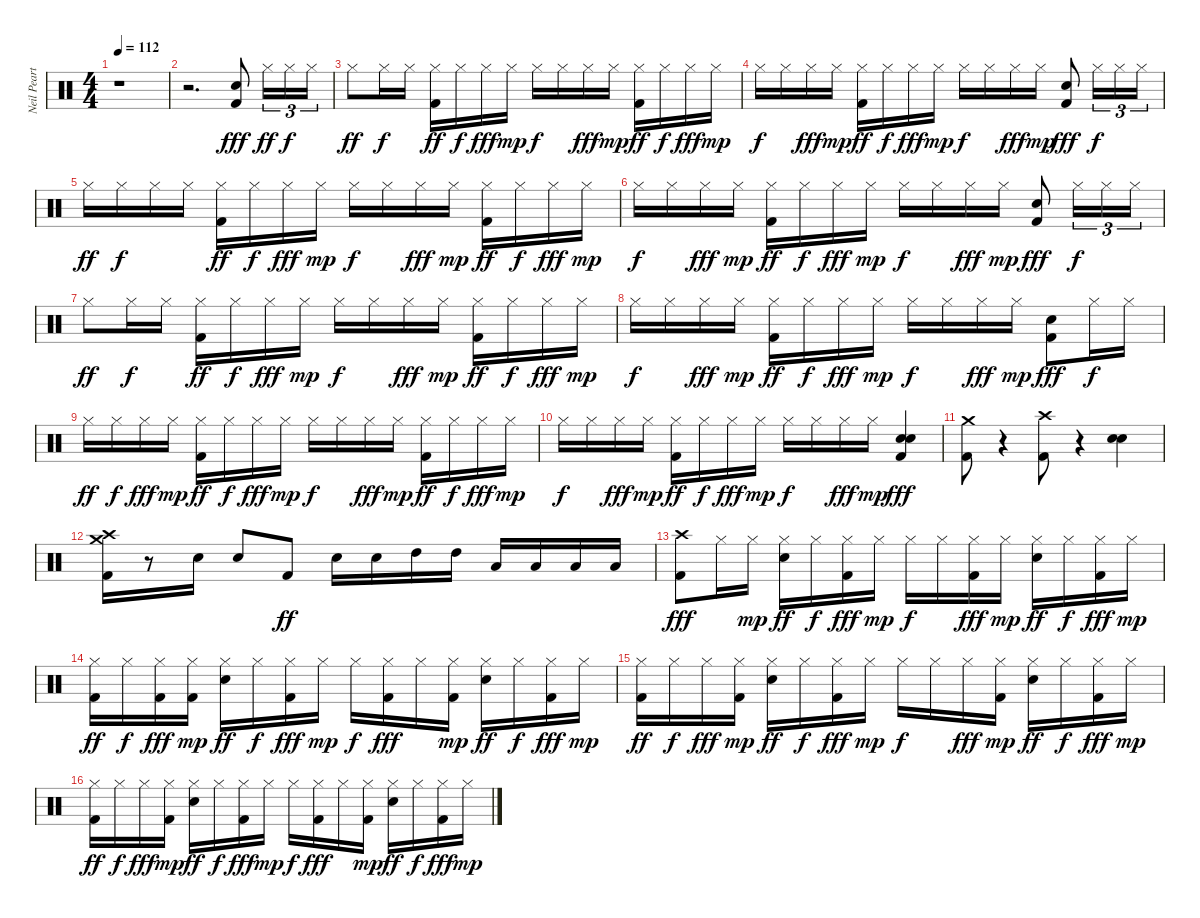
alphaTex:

\track ("Neil Peart" "Neil Peart") {instrument percussion}
\staff {score}
\articulation defaults
\ts (4 4)
\tempo 112
\clef neutral
\ks c
r.1{dy f} |
r.2{d} ("Kick (hit) 2" "Snare (hit) 2").8{dy fff} "Hi-Hat (closed)".16{tu (3 2) dy ff} "Hi-Hat (closed)".16{tu (3 2) dy f} "Hi-Hat (closed)".16{tu (3 2)} |
"Hi-Hat (closed)".8{dy ff} "Hi-Hat (closed)".16{dy f} "Hi-Hat (closed)".16 ("Hi-Hat (closed)" "Kick (hit) 2").16{dy ff} "Hi-Hat (closed)".16{dy f} "Hi-Hat (closed)".16{dy fff} "Hi-Hat (closed)".16{dy mp} "Hi-Hat (closed)".16{dy f} "Hi-Hat (closed)".16 "Hi-Hat (closed)".16{dy fff} "Hi-Hat (closed)".16{dy mp} ("Hi-Hat (closed)" "Kick (hit) 2").16{dy ff} "Hi-Hat (closed)".16{dy f} "Hi-Hat (closed)".16{dy fff} "Hi-Hat (closed)".16{dy mp} |
"Hi-Hat (closed)".16{dy f} "Hi-Hat (closed)".16 "Hi-Hat (closed)".16{dy fff} "Hi-Hat (closed)".16{dy mp} ("Kick (hit) 2" "Hi-Hat (closed)").16{dy ff} "Hi-Hat (closed)".16{dy f} "Hi-Hat (closed)".16{dy fff} "Hi-Hat (closed)".16{dy mp} "Hi-Hat (closed)".16{dy f} "Hi-Hat (closed)".16 "Hi-Hat (closed)".16{dy fff} "Hi-Hat (closed)".16{dy mp} ("Kick (hit) 2" "Snare (hit) 2").8{dy fff} "Hi-Hat (closed)".16{tu (3 2) dy f} "Hi-Hat (closed)".16{tu (3 2)} "Hi-Hat (closed)".16{tu (3 2)} |
"Hi-Hat (closed)".16{dy ff} "Hi-Hat (closed)".16{dy f} "Hi-Hat (closed)".16 "Hi-Hat (closed)".16 ("Kick (hit) 2" "Hi-Hat (closed)").16{dy ff} "Hi-Hat (closed)".16{dy f} "Hi-Hat (closed)".16{dy fff} "Hi-Hat (closed)".16{dy mp} "Hi-Hat (closed)".16{dy f} "Hi-Hat (closed)".16 "Hi-Hat (closed)".16{dy fff} "Hi-Hat (closed)".16{dy mp} ("Kick (hit) 2" "Hi-Hat (closed)").16{dy ff} "Hi-Hat (closed)".16{dy f} "Hi-Hat (closed)".16{dy fff} "Hi-Hat (closed)".16{dy mp} |
"Hi-Hat (closed)".16{dy f} "Hi-Hat (closed)".16 "Hi-Hat (closed)".16{dy fff} "Hi-Hat (closed)".16{dy mp} ("Kick (hit) 2" "Hi-Hat (closed)").16{dy ff} "Hi-Hat (closed)".16{dy f} "Hi-Hat (closed)".16{dy fff} "Hi-Hat (closed)".16{dy mp} "Hi-Hat (closed)".16{dy f} "Hi-Hat (closed)".16 "Hi-Hat (closed)".16{dy fff} "Hi-Hat (closed)".16{dy mp} ("Kick (hit) 2" "Snare (hit) 2").8{dy fff} "Hi-Hat (closed)".16{tu (3 2) dy f} "Hi-Hat (closed)".16{tu (3 2)} "Hi-Hat (closed)".16{tu (3 2)} |
"Hi-Hat (closed)".8{dy ff} "Hi-Hat (closed)".16{dy f} "Hi-Hat (closed)".16 ("Kick (hit) 2" "Hi-Hat (closed)").16{dy ff} "Hi-Hat (closed)".16{dy f} "Hi-Hat (closed)".16{dy fff} "Hi-Hat (closed)".16{dy mp} "Hi-Hat (closed)".16{dy f} "Hi-Hat (closed)".16 "Hi-Hat (closed)".16{dy fff} "Hi-Hat (closed)".16{dy mp} ("Kick (hit) 2" "Hi-Hat (closed)").16{dy ff} "Hi-Hat (closed)".16{dy f} "Hi-Hat (closed)".16{dy fff} "Hi-Hat (closed)".16{dy mp} |
"Hi-Hat (closed)".16{dy f} "Hi-Hat (closed)".16 "Hi-Hat (closed)".16{dy fff} "Hi-Hat (closed)".16{dy mp} ("Kick (hit) 2" "Hi-Hat (closed)").16{dy ff} "Hi-Hat (closed)".16{dy f} "Hi-Hat (closed)".16{dy fff} "Hi-Hat (closed)".16{dy mp} "Hi-Hat (closed)".16{dy f} "Hi-Hat (closed)".16 "Hi-Hat (closed)".16{dy fff} "Hi-Hat (closed)".16{dy mp} ("Kick (hit) 2" "Snare (hit) 2").8{dy fff} "Hi-Hat (closed)".16{dy f} "Hi-Hat (closed)".16 |
"Hi-Hat (closed)".16{dy ff} "Hi-Hat (closed)".16{dy f} "Hi-Hat (closed)".16{dy fff} "Hi-Hat (closed)".16{dy mp} ("Kick (hit) 2" "Hi-Hat (closed)").16{dy ff} "Hi-Hat (closed)".16{dy f} "Hi-Hat (closed)".16{dy fff} "Hi-Hat (closed)".16{dy mp} "Hi-Hat (closed)".16{dy f} "Hi-Hat (closed)".16 "Hi-Hat (closed)".16{dy fff} "Hi-Hat (closed)".16{dy mp} ("Kick (hit) 2" "Hi-Hat (closed)").16{dy ff} "Hi-Hat (closed)".16{dy f} "Hi-Hat (closed)".16{dy fff} "Hi-Hat (closed)".16{dy mp} |
"Hi-Hat (closed)".16{dy f} "Hi-Hat (closed)".16 "Hi-Hat (closed)".16{dy fff} "Hi-Hat (closed)".16{dy mp} ("Kick (hit) 2" "Hi-Hat (closed)").16{dy ff} "Hi-Hat (closed)".16{dy f} "Hi-Hat (closed)".16{dy fff} "Hi-Hat (closed)".16{dy mp} "Hi-Hat (closed)".16{dy f} "Hi-Hat (closed)".16 "Hi-Hat (closed)".16{dy fff} "Hi-Hat (closed)".16{dy mp} ("Snare (hit) 2" "Kick (hit) 2" "Snare (hit) 2").4{dy fff} |
("Crash medium (hit)" "Kick (hit) 2").8 r.4 ("Kick (hit) 2" "Crash high (hit)").8 r.4 ("Snare (hit) 2" "Snare (hit) 2").4 |
("Crash medium (hit)" "Crash high (hit)" "Kick (hit) 2").16 r.8 "Snare (hit) 2".16 "Snare (hit) 2".8 "Kick (hit) 2".8{dy ff} "Snare (hit) 2".16 "Snare (hit) 2".16 "High Tom (hit)".16 "High Tom (hit)".16 "Low Tom (hit)".16 "Low Tom (hit)".16 "Low Floor Tom (hit)".16 "Low Floor Tom (hit)".16 |
("Crash high (hit)" "Kick (hit) 2").8{dy fff} "Hi-Hat (closed)".16 "Hi-Hat (closed)".16{dy mp} ("Snare (hit) 2" "Hi-Hat (closed)").16{dy ff} "Hi-Hat (closed)".16{dy f} ("Kick (hit) 2" "Hi-Hat (closed)").16{dy fff} "Hi-Hat (closed)".16{dy mp} "Hi-Hat (closed)".16{dy f} "Hi-Hat (closed)".16 ("Kick (hit) 2" "Hi-Hat (closed)").16{dy fff} "Hi-Hat (closed)".16{dy mp} ("Snare (hit) 2" "Hi-Hat (closed)").16{dy ff} "Hi-Hat (closed)".16{dy f} ("Kick (hit) 2" "Hi-Hat (closed)").16{dy fff} "Hi-Hat (closed)".16{dy mp} |
("Kick (hit) 2" "Hi-Hat (closed)").16{dy ff} "Hi-Hat (closed)".16{dy f} ("Kick (hit) 2" "Hi-Hat (closed)").16{dy fff} ("Kick (hit) 2" "Hi-Hat (closed)").16{dy mp} ("Snare (hit) 2" "Hi-Hat (closed)").16{dy ff} "Hi-Hat (closed)".16{dy f} ("Kick (hit) 2" "Hi-Hat (closed)").16{dy fff} "Hi-Hat (closed)".16{dy mp} "Hi-Hat (closed)".16{dy f} ("Kick (hit) 2" "Hi-Hat (closed)").16{dy fff} "Hi-Hat (closed)".16 ("Kick (hit) 2" "Hi-Hat (closed)").16{dy mp} ("Snare (hit) 2" "Hi-Hat (closed)").16{dy ff} "Hi-Hat (closed)".16{dy f} ("Kick (hit) 2" "Hi-Hat (closed)").16{dy fff} "Hi-Hat (closed)".16{dy mp} |
("Kick (hit) 2" "Hi-Hat (closed)").16{dy ff} "Hi-Hat (closed)".16{dy f} "Hi-Hat (closed)".16{dy fff} ("Kick (hit) 2" "Hi-Hat (closed)").16{dy mp} ("Snare (hit) 2" "Hi-Hat (closed)").16{dy ff} "Hi-Hat (closed)".16{dy f} ("Kick (hit) 2" "Hi-Hat (closed)").16{dy fff} "Hi-Hat (closed)".16{dy mp} "Hi-Hat (closed)".16{dy f} "Hi-Hat (closed)".16 "Hi-Hat (closed)".16{dy fff} ("Kick (hit) 2" "Hi-Hat (closed)").16{dy mp} ("Snare (hit) 2" "Hi-Hat (closed)").16{dy ff} "Hi-Hat (closed)".16{dy f} ("Kick (hit) 2" "Hi-Hat (closed)").16{dy fff} "Hi-Hat (closed)".16{dy mp} |
("Kick (hit) 2" "Hi-Hat (closed)").16{dy ff} "Hi-Hat (closed)".16{dy f} "Hi-Hat (closed)".16{dy fff} ("Kick (hit) 2" "Hi-Hat (closed)").16{dy mp} ("Snare (hit) 2" "Hi-Hat (closed)").16{dy ff} "Hi-Hat (closed)".16{dy f} ("Kick (hit) 2" "Hi-Hat (closed)").16{dy fff} "Hi-Hat (closed)".16{dy mp} "Hi-Hat (closed)".16{dy f} ("Kick (hit) 2" "Hi-Hat (closed)").16{dy fff} "Hi-Hat (closed)".16 ("Kick (hit) 2" "Hi-Hat (closed)").16{dy mp} ("Snare (hit) 2" "Hi-Hat (closed)").16{dy ff} "Hi-Hat (closed)".16{dy f} ("Kick (hit) 2" "Hi-Hat (closed)").16{dy fff} "Hi-Hat (closed)".16{dy mp}
